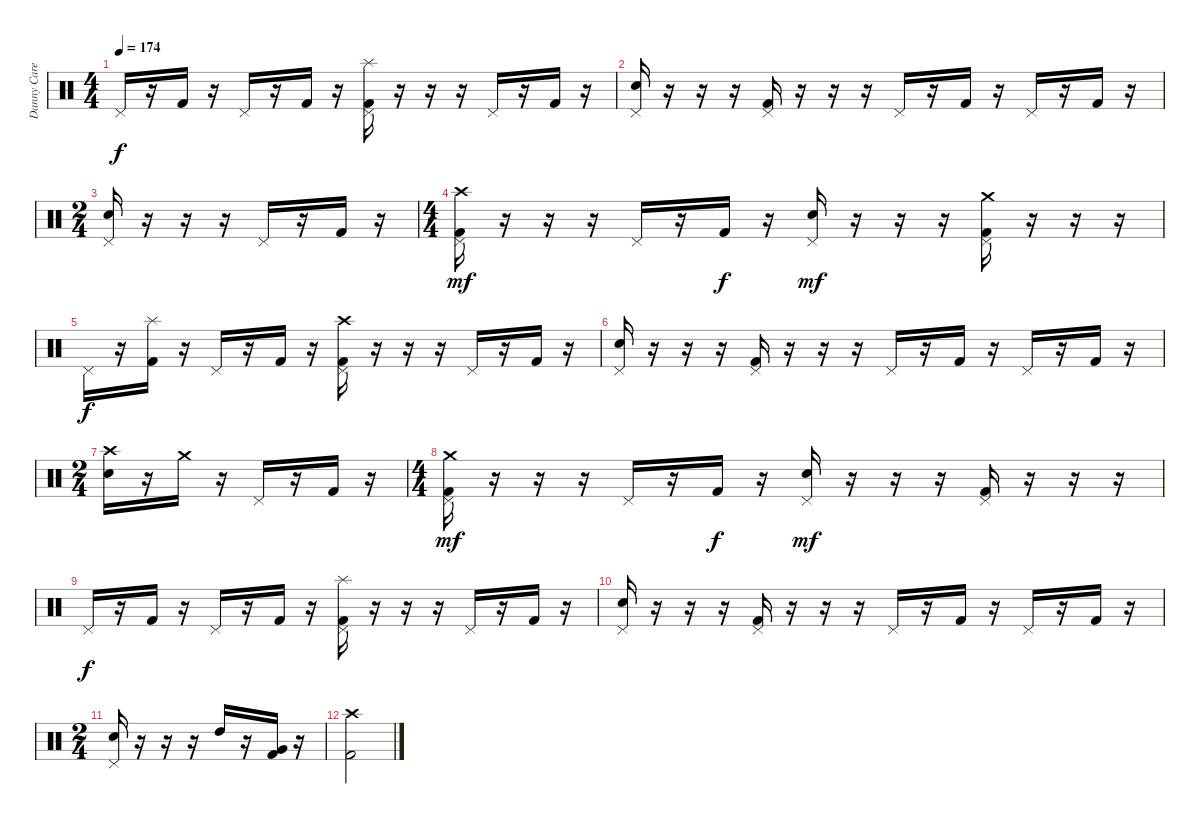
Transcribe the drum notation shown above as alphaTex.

\track ("Danny Carey" "Danny Care") {instrument percussion}
\staff {score}
\articulation defaults
\ts (4 4)
\tempo 174
\clef neutral
\ks c "Pedal Hi-Hat (hit)".16{dy f}
r.16 "Kick (hit) 2".16 r.16 "Pedal Hi-Hat (hit)".16 r.16 "Kick (hit) 2".16 r.16 ("Splash (hit)" "Pedal Hi-Hat (hit)" "Kick (hit) 2").16 r.16 r.16 r.16 "Pedal Hi-Hat (hit)".16 r.16 "Kick (hit) 2".16 r.16 |
("Pedal Hi-Hat (hit)" "Snare (hit) 2").16 r.16 r.16 r.16 ("Pedal Hi-Hat (hit)" "Kick (hit) 2").16 r.16 r.16 r.16 "Pedal Hi-Hat (hit)".16 r.16 "Kick (hit) 2".16 r.16 "Pedal Hi-Hat (hit)".16 r.16 "Kick (hit) 2".16 r.16 |
\ts (2 4)
("Pedal Hi-Hat (hit)" "Snare (hit) 2").16 r.16 r.16 r.16 "Pedal Hi-Hat (hit)".16 r.16 "Kick (hit) 2".16 r.16 |
\ts (4 4)
("Crash high (hit)" "Pedal Hi-Hat (hit)" "Kick (hit) 2").16{dy mf} r.16 r.16 r.16 "Pedal Hi-Hat (hit)".16 r.16 "Kick (hit) 2".16{dy f} r.16 ("Pedal Hi-Hat (hit)" "Snare (hit) 2").16{dy mf} r.16 r.16 r.16 ("Crash medium (hit)" "Pedal Hi-Hat (hit)" "Kick (hit) 2").16 r.16 r.16 r.16 |
"Pedal Hi-Hat (hit)".16{dy f} r.16 ("Splash (hit)" "Kick (hit) 2").16 r.16 "Pedal Hi-Hat (hit)".16 r.16 "Kick (hit) 2".16 r.16 ("Crash high (hit)" "Pedal Hi-Hat (hit)" "Kick (hit) 2").16 r.16 r.16 r.16 "Pedal Hi-Hat (hit)".16 r.16 "Kick (hit) 2".16 r.16 |
("Pedal Hi-Hat (hit)" "Snare (hit) 2").16 r.16 r.16 r.16 ("Pedal Hi-Hat (hit)" "Kick (hit) 2").16 r.16 r.16 r.16 "Pedal Hi-Hat (hit)".16 r.16 "Kick (hit) 2".16 r.16 "Pedal Hi-Hat (hit)".16 r.16 "Kick (hit) 2".16 r.16 |
\ts (2 4)
("Crash high (hit)" "Snare (hit) 2").16 r.16 "Crash medium (hit)".16 r.16 "Pedal Hi-Hat (hit)".16 r.16 "Kick (hit) 2".16 r.16 |
\ts (4 4)
("Crash medium (hit)" "Pedal Hi-Hat (hit)" "Kick (hit) 2").16{dy mf} r.16 r.16 r.16 "Pedal Hi-Hat (hit)".16 r.16 "Kick (hit) 2".16{dy f} r.16 ("Pedal Hi-Hat (hit)" "Snare (hit) 2").16{dy mf} r.16 r.16 r.16 ("Pedal Hi-Hat (hit)" "Kick (hit) 2").16 r.16 r.16 r.16 |
"Pedal Hi-Hat (hit)".16{dy f} r.16 "Kick (hit) 2".16 r.16 "Pedal Hi-Hat (hit)".16 r.16 "Kick (hit) 2".16 r.16 ("Splash (hit)" "Pedal Hi-Hat (hit)" "Kick (hit) 2").16 r.16 r.16 r.16 "Pedal Hi-Hat (hit)".16 r.16 "Kick (hit) 2".16 r.16 |
("Pedal Hi-Hat (hit)" "Snare (hit) 2").16 r.16 r.16 r.16 ("Pedal Hi-Hat (hit)" "Kick (hit) 2").16 r.16 r.16 r.16 "Pedal Hi-Hat (hit)".16 r.16 "Kick (hit) 2".16 r.16 "Pedal Hi-Hat (hit)".16 r.16 "Kick (hit) 2".16 r.16 |
\ts (2 4)
("Pedal Hi-Hat (hit)" "Snare (hit) 2").16 r.16 r.16 r.16 "High Tom (hit)".16 r.16 ("Very Low Tom (hit)" "Kick (hit) 2").16 r.16 |
("Crash high (hit)" "Kick (hit) 2").2
